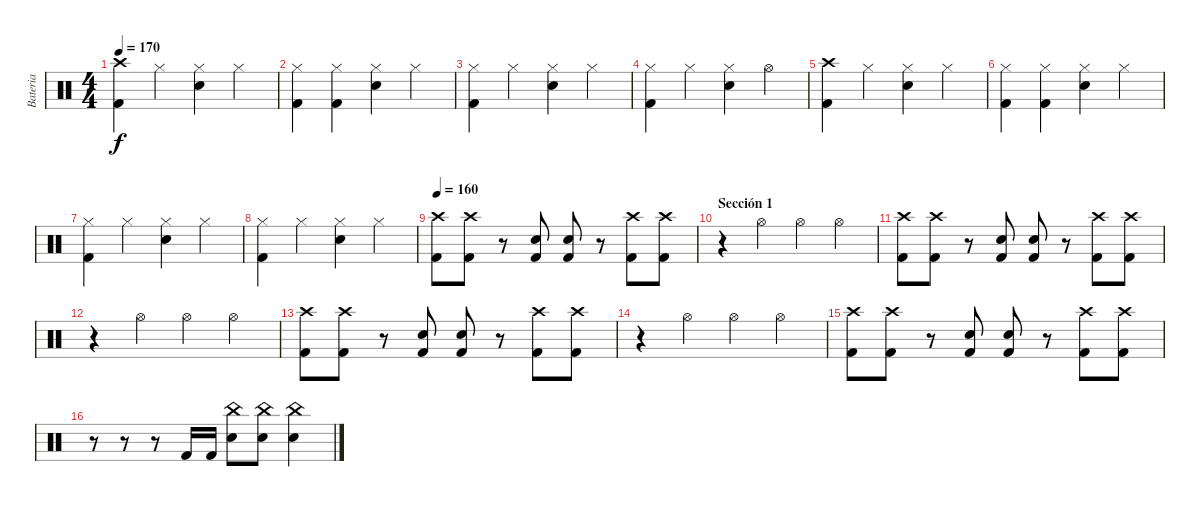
\track ("Bateria" "Bateria") {instrument percussion}
\staff {score}
\articulation defaults
\ts (4 4)
\tempo 170
\clef neutral
\ks c
("Crash high (hit)" "Kick (hit) 2").4{dy f} "Hi-Hat (closed)".4 ("Hi-Hat (closed)" "Electric Snare (hit)").4 "Hi-Hat (closed)".4 |
("Hi-Hat (closed)" "Kick (hit) 2").4 ("Hi-Hat (closed)" "Kick (hit) 2").4 ("Hi-Hat (closed)" "Electric Snare (hit)").4 "Hi-Hat (closed)".4 |
("Hi-Hat (closed)" "Kick (hit) 2").4 "Hi-Hat (closed)".4 ("Hi-Hat (closed)" "Electric Snare (hit)").4 "Hi-Hat (closed)".4 |
("Hi-Hat (closed)" "Kick (hit) 2").4 "Hi-Hat (closed)".4 ("Hi-Hat (closed)" "Electric Snare (hit)").4 "Hi-Hat (open)".4 |
("Crash high (hit)" "Kick (hit) 2").4 "Hi-Hat (closed)".4 ("Hi-Hat (closed)" "Electric Snare (hit)").4 "Hi-Hat (closed)".4 |
("Hi-Hat (closed)" "Kick (hit) 2").4 ("Hi-Hat (closed)" "Kick (hit) 2").4 ("Hi-Hat (closed)" "Electric Snare (hit)").4 "Hi-Hat (closed)".4 |
("Hi-Hat (closed)" "Kick (hit) 2").4 "Hi-Hat (closed)".4 ("Hi-Hat (closed)" "Electric Snare (hit)").4 "Hi-Hat (closed)".4 |
("Hi-Hat (closed)" "Kick (hit) 2").4 "Hi-Hat (closed)".4 ("Hi-Hat (closed)" "Electric Snare (hit)").4 "Hi-Hat (closed)".4 |
\tempo 160
("Crash high (hit)" "Kick (hit) 2").8 ("Crash high (hit)" "Kick (hit) 2").8 r.8 ("Electric Snare (hit)" "Kick (hit) 2").8 ("Electric Snare (hit)" "Kick (hit) 2").8 r.8 ("Crash high (hit)" "Kick (hit) 2").8 ("Crash high (hit)" "Kick (hit) 2").8 |
\section ("" "Sección 1")
r.4 "Hi-Hat (open)".4 "Hi-Hat (open)".4 "Hi-Hat (open)".4 |
("Crash high (hit)" "Kick (hit) 2").8 ("Crash high (hit)" "Kick (hit) 2").8 r.8 ("Electric Snare (hit)" "Kick (hit) 2").8 ("Electric Snare (hit)" "Kick (hit) 2").8 r.8 ("Crash high (hit)" "Kick (hit) 2").8 ("Crash high (hit)" "Kick (hit) 2").8 |
r.4 "Hi-Hat (open)".4 "Hi-Hat (open)".4 "Hi-Hat (open)".4 |
("Crash high (hit)" "Kick (hit) 2").8 ("Crash high (hit)" "Kick (hit) 2").8 r.8 ("Electric Snare (hit)" "Kick (hit) 2").8 ("Electric Snare (hit)" "Kick (hit) 2").8 r.8 ("Crash high (hit)" "Kick (hit) 2").8 ("Crash high (hit)" "Kick (hit) 2").8 |
r.4 "Hi-Hat (open)".4 "Hi-Hat (open)".4 "Hi-Hat (open)".4 |
("Crash high (hit)" "Kick (hit) 2").8 ("Crash high (hit)" "Kick (hit) 2").8 r.8 ("Electric Snare (hit)" "Kick (hit) 2").8 ("Electric Snare (hit)" "Kick (hit) 2").8 r.8 ("Crash high (hit)" "Kick (hit) 2").8 ("Crash high (hit)" "Kick (hit) 2").8 |
r.8 r.8 r.8 "Kick (hit) 2".16 "Kick (hit) 2".16 ("China (hit)" "Electric Snare (hit)").8 ("China (hit)" "Electric Snare (hit)").8 ("China (hit)" "Electric Snare (hit)").4
